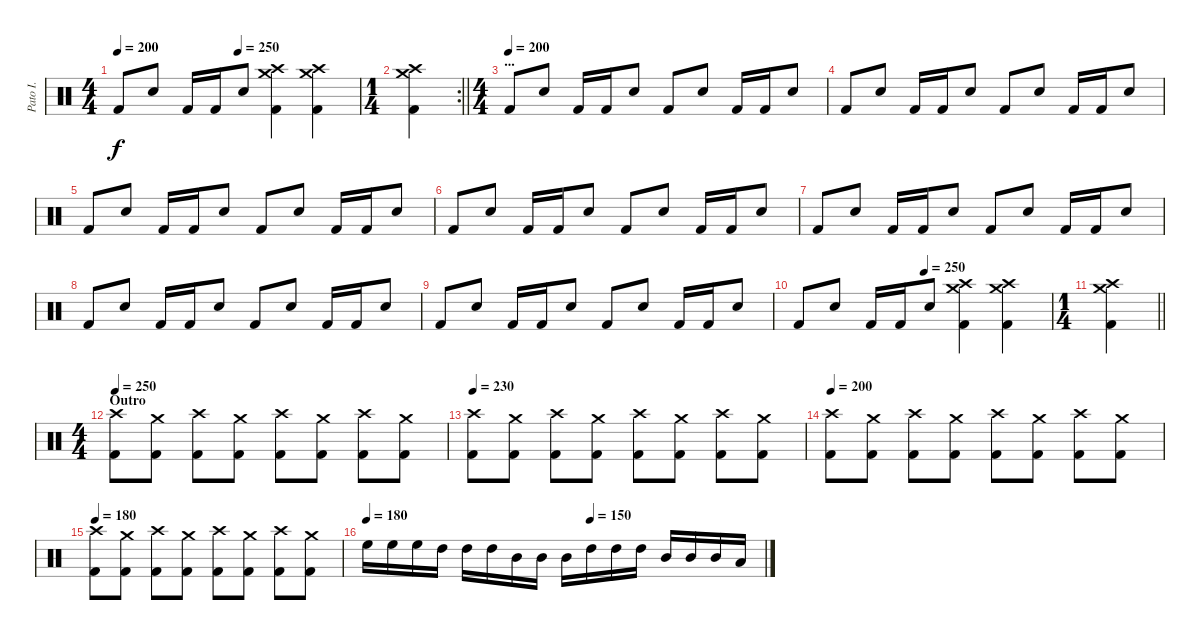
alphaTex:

\track ("Pato I." "Pato I.") {instrument percussion}
\staff {score}
\articulation defaults
\ts (4 4)
\tempo 200
\tempo (250 0.5)
\clef neutral
\ks c "Kick (hit) 2".8{dy f} "Snare (hit) 2".8 "Kick (hit) 2".16 "Kick (hit) 2".16 "Snare (hit) 2".8
("Crash high (hit)" "Crash medium (hit)" "Kick (hit) 2").4 ("Crash high (hit)" "Crash medium (hit)" "Kick (hit) 2").4 |
\rc 2
\ts (1 4)
\barLineRight lightlight
("Crash high (hit)" "Crash medium (hit)" "Kick (hit) 2").4 |
\ts (4 4)
\section ("" "...")
\tempo (200)
"Kick (hit) 2".8 "Snare (hit) 2".8 "Kick (hit) 2".16 "Kick (hit) 2".16 "Snare (hit) 2".8 "Kick (hit) 2".8 "Snare (hit) 2".8 "Kick (hit) 2".16 "Kick (hit) 2".16 "Snare (hit) 2".8 |
"Kick (hit) 2".8 "Snare (hit) 2".8 "Kick (hit) 2".16 "Kick (hit) 2".16 "Snare (hit) 2".8 "Kick (hit) 2".8 "Snare (hit) 2".8 "Kick (hit) 2".16 "Kick (hit) 2".16 "Snare (hit) 2".8 |
"Kick (hit) 2".8 "Snare (hit) 2".8 "Kick (hit) 2".16 "Kick (hit) 2".16 "Snare (hit) 2".8 "Kick (hit) 2".8 "Snare (hit) 2".8 "Kick (hit) 2".16 "Kick (hit) 2".16 "Snare (hit) 2".8 |
"Kick (hit) 2".8 "Snare (hit) 2".8 "Kick (hit) 2".16 "Kick (hit) 2".16 "Snare (hit) 2".8 "Kick (hit) 2".8 "Snare (hit) 2".8 "Kick (hit) 2".16 "Kick (hit) 2".16 "Snare (hit) 2".8 |
"Kick (hit) 2".8 "Snare (hit) 2".8 "Kick (hit) 2".16 "Kick (hit) 2".16 "Snare (hit) 2".8 "Kick (hit) 2".8 "Snare (hit) 2".8 "Kick (hit) 2".16 "Kick (hit) 2".16 "Snare (hit) 2".8 |
"Kick (hit) 2".8 "Snare (hit) 2".8 "Kick (hit) 2".16 "Kick (hit) 2".16 "Snare (hit) 2".8 "Kick (hit) 2".8 "Snare (hit) 2".8 "Kick (hit) 2".16 "Kick (hit) 2".16 "Snare (hit) 2".8 |
"Kick (hit) 2".8 "Snare (hit) 2".8 "Kick (hit) 2".16 "Kick (hit) 2".16 "Snare (hit) 2".8 "Kick (hit) 2".8 "Snare (hit) 2".8 "Kick (hit) 2".16 "Kick (hit) 2".16 "Snare (hit) 2".8 |
\tempo (250 0.5)
"Kick (hit) 2".8 "Snare (hit) 2".8 "Kick (hit) 2".16 "Kick (hit) 2".16 "Snare (hit) 2".8 ("Crash high (hit)" "Crash medium (hit)" "Kick (hit) 2").4 ("Crash high (hit)" "Crash medium (hit)" "Kick (hit) 2").4 |
\ts (1 4)
\barLineRight lightlight
("Crash high (hit)" "Crash medium (hit)" "Kick (hit) 2").4 |
\ts (4 4)
\section ("" "Outro")
\tempo 250
("Crash high (hit)" "Kick (hit) 2").8 ("Crash medium (hit)" "Kick (hit) 2").8 ("Crash high (hit)" "Kick (hit) 2").8 ("Crash medium (hit)" "Kick (hit) 2").8 ("Crash high (hit)" "Kick (hit) 2").8 ("Crash medium (hit)" "Kick (hit) 2").8 ("Crash high (hit)" "Kick (hit) 2").8 ("Crash medium (hit)" "Kick (hit) 2").8 |
\tempo 230
("Crash high (hit)" "Kick (hit) 2").8 ("Crash medium (hit)" "Kick (hit) 2").8 ("Crash high (hit)" "Kick (hit) 2").8 ("Crash medium (hit)" "Kick (hit) 2").8 ("Crash high (hit)" "Kick (hit) 2").8 ("Crash medium (hit)" "Kick (hit) 2").8 ("Crash high (hit)" "Kick (hit) 2").8 ("Crash medium (hit)" "Kick (hit) 2").8 |
\tempo 200
("Crash high (hit)" "Kick (hit) 2").8 ("Crash medium (hit)" "Kick (hit) 2").8 ("Crash high (hit)" "Kick (hit) 2").8 ("Crash medium (hit)" "Kick (hit) 2").8 ("Crash high (hit)" "Kick (hit) 2").8 ("Crash medium (hit)" "Kick (hit) 2").8 ("Crash high (hit)" "Kick (hit) 2").8 ("Crash medium (hit)" "Kick (hit) 2").8 |
\tempo 180
("Crash high (hit)" "Kick (hit) 2").8 ("Crash medium (hit)" "Kick (hit) 2").8 ("Crash high (hit)" "Kick (hit) 2").8 ("Crash medium (hit)" "Kick (hit) 2").8 ("Crash high (hit)" "Kick (hit) 2").8 ("Crash medium (hit)" "Kick (hit) 2").8 ("Crash high (hit)" "Kick (hit) 2").8 ("Crash medium (hit)" "Kick (hit) 2").8 |
\tempo 180
\tempo (150 0.5625)
"High Floor Tom (hit)".16 "High Floor Tom (hit)".16 "High Floor Tom (hit)".16 "High Tom (hit)".16 "High Tom (hit)".16 "High Tom (hit)".16 "Mid Tom (hit)".16 "Mid Tom (hit)".16 "Mid Tom (hit)".16 "High Tom (hit)".16 "High Tom (hit)".16 "High Tom (hit)".16 "Mid Tom (hit)".16 "Mid Tom (hit)".16 "Mid Tom (hit)".16 "Low Tom (hit)".16
